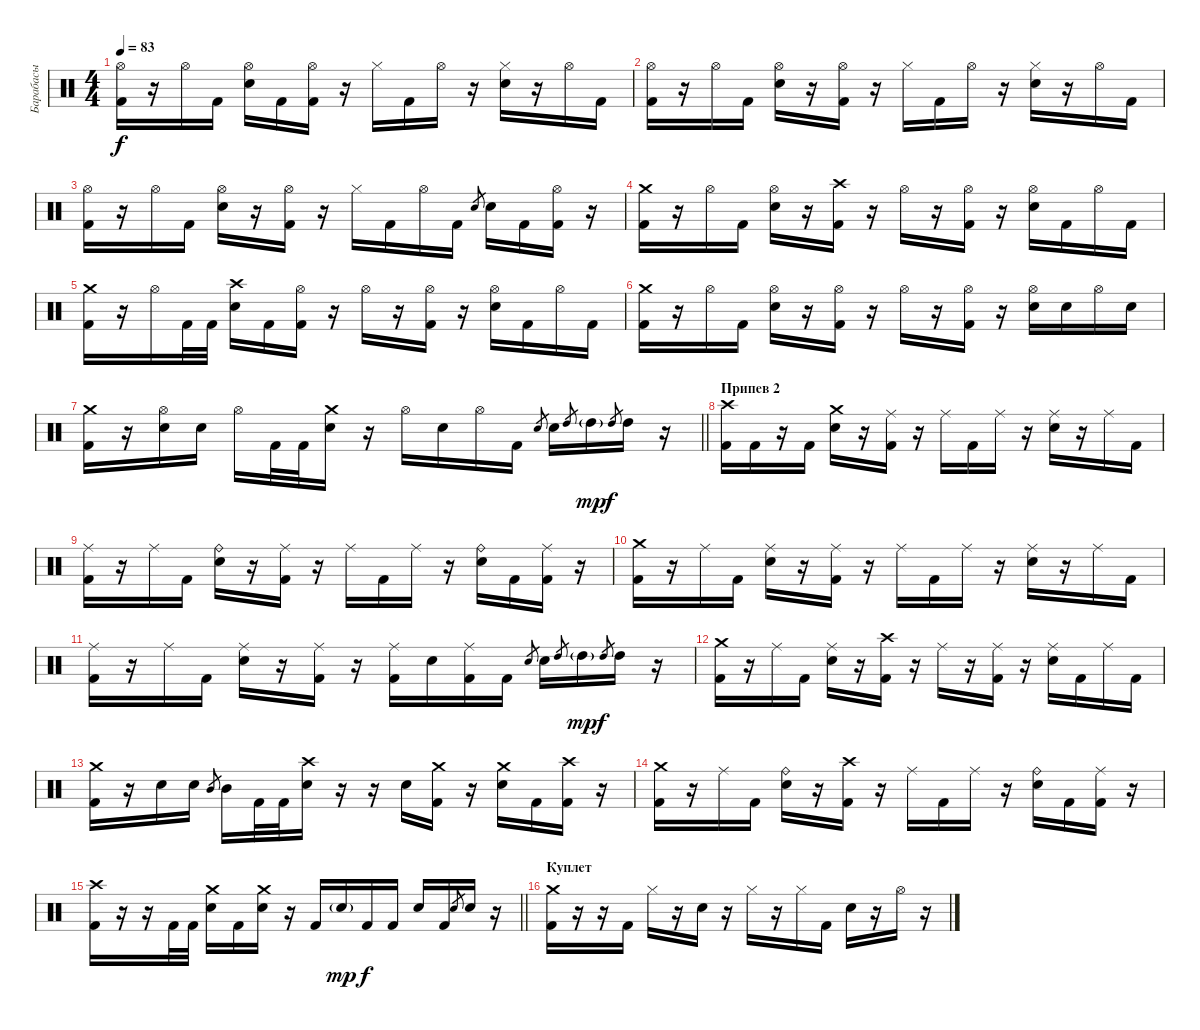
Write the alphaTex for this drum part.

\track ("Барабасы" "Барабасы") {instrument percussion}
\staff {score}
\articulation defaults
\ts (4 4)
\tempo 83
\clef neutral
\ks c
("Kick (hit) 2" "Hi-Hat (open)").16{dy f} r.16 "Hi-Hat (open)".16 "Kick (hit) 2".16 ("Electric Snare (hit)" "Hi-Hat (open)").16 "Kick (hit) 2".16 ("Kick (hit) 2" "Hi-Hat (open)").16 r.16 "Hi-Hat (closed)".16 "Kick (hit) 2".16 "Hi-Hat (open)".16 r.16 ("Electric Snare (hit)" "Hi-Hat (closed)").16 r.16 "Hi-Hat (open)".16 "Kick (hit) 2".16 |
("Hi-Hat (open)" "Kick (hit) 2").16 r.16 "Hi-Hat (open)".16 "Kick (hit) 2".16 ("Electric Snare (hit)" "Hi-Hat (open)").16 r.16 ("Hi-Hat (open)" "Kick (hit) 2").16 r.16 "Hi-Hat (closed)".16 "Kick (hit) 2".16 "Hi-Hat (open)".16 r.16 ("Electric Snare (hit)" "Hi-Hat (closed)").16 r.16 "Hi-Hat (open)".16 "Kick (hit) 2".16 |
("Hi-Hat (open)" "Kick (hit) 2").16 r.16 "Hi-Hat (open)".16 "Kick (hit) 2".16 ("Electric Snare (hit)" "Hi-Hat (open)").16 r.16 ("Hi-Hat (open)" "Kick (hit) 2").16 r.16 "Hi-Hat (closed)".16 "Kick (hit) 2".16 "Hi-Hat (open)".16 "Kick (hit) 2".16 "Electric Snare (hit)".8{gr} "Electric Snare (hit)".16 "Kick (hit) 2".16 ("Kick (hit) 2" "Hi-Hat (open)").16 r.16 |
("Kick (hit) 2" "Crash medium (hit)").16 r.16 "Hi-Hat (open)".16 "Kick (hit) 2".16 ("Electric Snare (hit)" "Hi-Hat (open)").16 r.16 ("Kick (hit) 2" "Crash high (hit)").16 r.16 "Hi-Hat (open)".16 r.16 ("Kick (hit) 2" "Hi-Hat (open)").16 r.16 ("Electric Snare (hit)" "Hi-Hat (open)").16 "Kick (hit) 2".16 "Hi-Hat (open)".16 "Kick (hit) 2".16 |
("Kick (hit) 2" "Crash medium (hit)").16 r.16 "Hi-Hat (open)".16 "Kick (hit) 2".32 "Kick (hit) 2".32 ("Electric Snare (hit)" "Crash high (hit)").16 "Kick (hit) 2".16 ("Kick (hit) 2" "Hi-Hat (open)").16 r.16 "Hi-Hat (open)".16 r.16 ("Kick (hit) 2" "Hi-Hat (open)").16 r.16 ("Electric Snare (hit)" "Hi-Hat (open)").16 "Kick (hit) 2".16 "Hi-Hat (open)".16 "Kick (hit) 2".16 |
("Kick (hit) 2" "Crash medium (hit)").16 r.16 "Hi-Hat (open)".16 "Kick (hit) 2".16 ("Electric Snare (hit)" "Hi-Hat (open)").16 r.16 ("Kick (hit) 2" "Hi-Hat (open)").16 r.16 "Hi-Hat (open)".16 r.16 ("Kick (hit) 2" "Hi-Hat (open)").16 r.16 ("Electric Snare (hit)" "Hi-Hat (open)").16 "Electric Snare (hit)".16 "Hi-Hat (open)".16 "Electric Snare (hit)".16 |
\barLineRight lightlight
("Kick (hit) 2" "Crash medium (hit)").16 r.16 ("Electric Snare (hit)" "Hi-Hat (open)").16 "Electric Snare (hit)".16 "Hi-Hat (open)".16 "Kick (hit) 2".32 "Kick (hit) 2".32 ("Electric Snare (hit)" "Crash medium (hit)").16 r.16 "Hi-Hat (open)".16 "Electric Snare (hit)".16 "Hi-Hat (open)".16 "Kick (hit) 2".16 "Electric Snare (hit)".8{gr} "Electric Snare (hit)".16 "High Tom (hit)".8{gr} "High Tom (hit)"{g}.16{dy mp} "High Tom (hit)".8{gr dy f} "High Tom (hit)".16 r.16 |
\section ("" "Припев 2")
("Crash high (hit)" "Kick (hit) 2").16 "Kick (hit) 2".16 r.16 "Kick (hit) 2".16 ("Crash medium (hit)" "Electric Snare (hit)").16 r.16 ("Kick (hit) 2" "Ride (middle)").16 r.16 "Ride (middle)".16 "Kick (hit) 2".16 "Ride (middle)".16 r.16 ("Electric Snare (hit)" "Ride (middle)").16 r.16 "Ride (middle)".16 "Kick (hit) 2".16 |
("Kick (hit) 2" "Ride (middle)").16 r.16 "Ride (middle)".16 "Kick (hit) 2".16 ("Electric Snare (hit)" "Ride (bell)").16 r.16 ("Kick (hit) 2" "Ride (middle)").16 r.16 "Ride (middle)".16 "Kick (hit) 2".16 "Ride (middle)".16 r.16 ("Electric Snare (hit)" "Ride (bell)").16 "Kick (hit) 2".16 ("Kick (hit) 2" "Ride (middle)").16 r.16 |
("Kick (hit) 2" "Crash medium (hit)").16 r.16 "Ride (middle)".16 "Kick (hit) 2".16 ("Electric Snare (hit)" "Ride (middle)").16 r.16 ("Kick (hit) 2" "Ride (middle)").16 r.16 "Ride (middle)".16 "Kick (hit) 2".16 "Ride (middle)".16 r.16 ("Electric Snare (hit)" "Ride (middle)").16 r.16 "Ride (middle)".16 "Kick (hit) 2".16 |
("Kick (hit) 2" "Ride (middle)").16 r.16 "Ride (middle)".16 "Kick (hit) 2".16 ("Electric Snare (hit)" "Ride (middle)").16 r.16 ("Kick (hit) 2" "Ride (middle)").16 r.16 ("Kick (hit) 2" "Ride (middle)").16 "Electric Snare (hit)".16 ("Kick (hit) 2" "Ride (middle)").16 "Kick (hit) 2".16 "Electric Snare (hit)".8{gr} "Electric Snare (hit)".16 "High Tom (hit)".8{gr} "High Tom (hit)"{g}.16{dy mp} "High Tom (hit)".8{gr dy f} "High Tom (hit)".16 r.16 |
("Kick (hit) 2" "Crash medium (hit)").16 r.16 "Ride (middle)".16 "Kick (hit) 2".16 ("Electric Snare (hit)" "Ride (middle)").16 r.16 ("Kick (hit) 2" "Crash high (hit)").16 r.16 "Ride (middle)".16 r.16 ("Kick (hit) 2" "Ride (middle)").16 r.16 ("Electric Snare (hit)" "Ride (middle)").16 "Kick (hit) 2".16 "Ride (middle)".16 "Kick (hit) 2".16 |
("Kick (hit) 2" "Crash medium (hit)").16 r.16 "Electric Snare (hit)".16 "Electric Snare (hit)".16 "Mid Tom (hit)".8{gr} "Mid Tom (hit)".16 "Kick (hit) 2".32 "Kick (hit) 2".32 ("Electric Snare (hit)" "Crash high (hit)").16 r.16 r.16 "Electric Snare (hit)".16 ("Kick (hit) 2" "Crash medium (hit)").16 r.16 ("Electric Snare (hit)" "Crash medium (hit)").16 "Kick (hit) 2".16 ("Kick (hit) 2" "Crash high (hit)").16 r.16 |
("Kick (hit) 2" "Crash medium (hit)").16 r.16 "Ride (middle)".16 "Kick (hit) 2".16 ("Electric Snare (hit)" "Ride (bell)").16 r.16 ("Kick (hit) 2" "Crash high (hit)").16 r.16 "Ride (middle)".16 "Kick (hit) 2".16 "Ride (middle)".16 r.16 ("Electric Snare (hit)" "Ride (bell)").16 "Kick (hit) 2".16 ("Kick (hit) 2" "Ride (middle)").16 r.16 |
\barLineRight lightlight
("Kick (hit) 2" "Crash high (hit)").16 r.16 r.16 "Kick (hit) 2".32 "Kick (hit) 2".32 ("Electric Snare (hit)" "Crash medium (hit)").16 "Kick (hit) 2".16 ("Electric Snare (hit)" "Crash medium (hit)").16 r.16 "Kick (hit) 2".16 "Electric Snare (hit)"{g}.16{dy mp} "Kick (hit) 2".16{dy f} "Kick (hit) 2".16 "Electric Snare (hit)".16 "Kick (hit) 2".16 "Electric Snare (hit)".8{gr} "Electric Snare (hit)".16 r.16 |
\section ("" "Куплет")
("Kick (hit) 2" "Crash medium (hit)").16 r.16 r.16 "Kick (hit) 2".16 "Hi-Hat (closed)".16 r.16 "Electric Snare (hit)".16 r.16 "Hi-Hat (closed)".16 r.16 "Hi-Hat (closed)".16 "Kick (hit) 2".16 "Electric Snare (hit)".16 r.16 "Hi-Hat (open)".16 r.16
